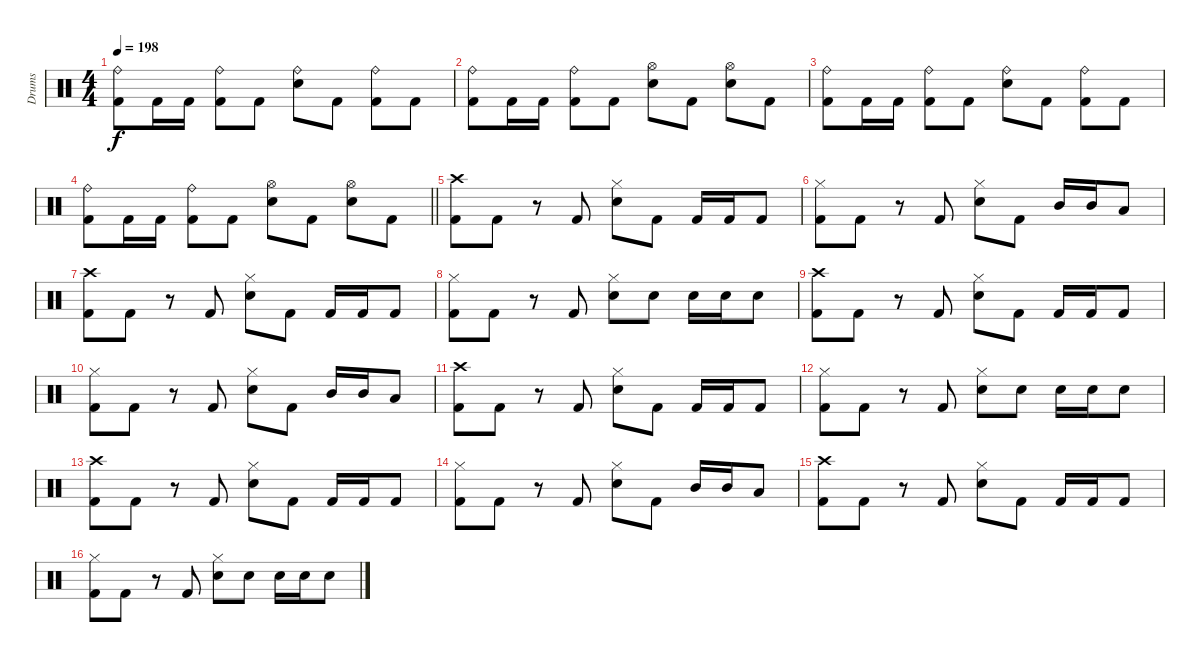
\track ("Drums" "Drums") {instrument percussion}
\staff {score}
\articulation defaults
\ts (4 4)
\tempo 198
\clef neutral
\ks c
("Ride (bell)" "Kick (hit) 2").8{dy f} "Kick (hit) 2".16 "Kick (hit) 2".16 ("Ride (bell)" "Kick (hit) 2").8 "Kick (hit) 2".8 ("Ride (bell)" "Snare (hit) 2").8 "Kick (hit) 2".8 ("Ride (bell)" "Kick (hit) 2").8 "Kick (hit) 2".8 |
("Ride (bell)" "Kick (hit) 2").8 "Kick (hit) 2".16 "Kick (hit) 2".16 ("Ride (bell)" "Kick (hit) 2").8 "Kick (hit) 2".8 ("Hi-Hat (open)" "Snare (hit) 2").8 "Kick (hit) 2".8 ("Hi-Hat (open)" "Snare (hit) 2").8 "Kick (hit) 2".8 |
("Ride (bell)" "Kick (hit) 2").8 "Kick (hit) 2".16 "Kick (hit) 2".16 ("Ride (bell)" "Kick (hit) 2").8 "Kick (hit) 2".8 ("Ride (bell)" "Snare (hit) 2").8 "Kick (hit) 2".8 ("Ride (bell)" "Kick (hit) 2").8 "Kick (hit) 2".8 |
\barLineRight lightlight
("Ride (bell)" "Kick (hit) 2").8 "Kick (hit) 2".16 "Kick (hit) 2".16 ("Ride (bell)" "Kick (hit) 2").8 "Kick (hit) 2".8 ("Hi-Hat (open)" "Snare (hit) 2").8 "Kick (hit) 2".8 ("Hi-Hat (open)" "Snare (hit) 2").8 "Kick (hit) 2".8 |
("Crash high (hit)" "Kick (hit) 2").8 "Kick (hit) 2".8 r.8 "Kick (hit) 2".8 ("Hi-Hat (closed)" "Snare (hit) 2").8 "Kick (hit) 2".8 "Kick (hit) 2".16 "Kick (hit) 2".16 "Kick (hit) 2".8 |
("Hi-Hat (closed)" "Kick (hit) 2").8 "Kick (hit) 2".8 r.8 "Kick (hit) 2".8 ("Hi-Hat (closed)" "Snare (hit) 2").8 "Kick (hit) 2".8 "Mid Tom (hit)".16 "Mid Tom (hit)".16 "Low Tom (hit)".8 |
("Crash high (hit)" "Kick (hit) 2").8 "Kick (hit) 2".8 r.8 "Kick (hit) 2".8 ("Hi-Hat (closed)" "Snare (hit) 2").8 "Kick (hit) 2".8 "Kick (hit) 2".16 "Kick (hit) 2".16 "Kick (hit) 2".8 |
("Hi-Hat (closed)" "Kick (hit) 2").8 "Kick (hit) 2".8 r.8 "Kick (hit) 2".8 ("Hi-Hat (closed)" "Snare (hit) 2").8 "Snare (hit) 2".8 "Snare (hit) 2".16 "Snare (hit) 2".16 "Snare (hit) 2".8 |
("Crash high (hit)" "Kick (hit) 2").8 "Kick (hit) 2".8 r.8 "Kick (hit) 2".8 ("Hi-Hat (closed)" "Snare (hit) 2").8 "Kick (hit) 2".8 "Kick (hit) 2".16 "Kick (hit) 2".16 "Kick (hit) 2".8 |
("Hi-Hat (closed)" "Kick (hit) 2").8 "Kick (hit) 2".8 r.8 "Kick (hit) 2".8 ("Hi-Hat (closed)" "Snare (hit) 2").8 "Kick (hit) 2".8 "Mid Tom (hit)".16 "Mid Tom (hit)".16 "Low Tom (hit)".8 |
("Crash high (hit)" "Kick (hit) 2").8 "Kick (hit) 2".8 r.8 "Kick (hit) 2".8 ("Hi-Hat (closed)" "Snare (hit) 2").8 "Kick (hit) 2".8 "Kick (hit) 2".16 "Kick (hit) 2".16 "Kick (hit) 2".8 |
("Hi-Hat (closed)" "Kick (hit) 2").8 "Kick (hit) 2".8 r.8 "Kick (hit) 2".8 ("Hi-Hat (closed)" "Snare (hit) 2").8 "Snare (hit) 2".8 "Snare (hit) 2".16 "Snare (hit) 2".16 "Snare (hit) 2".8 |
("Crash high (hit)" "Kick (hit) 2").8 "Kick (hit) 2".8 r.8 "Kick (hit) 2".8 ("Hi-Hat (closed)" "Snare (hit) 2").8 "Kick (hit) 2".8 "Kick (hit) 2".16 "Kick (hit) 2".16 "Kick (hit) 2".8 |
("Hi-Hat (closed)" "Kick (hit) 2").8 "Kick (hit) 2".8 r.8 "Kick (hit) 2".8 ("Hi-Hat (closed)" "Snare (hit) 2").8 "Kick (hit) 2".8 "Mid Tom (hit)".16 "Mid Tom (hit)".16 "Low Tom (hit)".8 |
("Crash high (hit)" "Kick (hit) 2").8 "Kick (hit) 2".8 r.8 "Kick (hit) 2".8 ("Hi-Hat (closed)" "Snare (hit) 2").8 "Kick (hit) 2".8 "Kick (hit) 2".16 "Kick (hit) 2".16 "Kick (hit) 2".8 |
("Hi-Hat (closed)" "Kick (hit) 2").8 "Kick (hit) 2".8 r.8 "Kick (hit) 2".8 ("Hi-Hat (closed)" "Snare (hit) 2").8 "Snare (hit) 2".8 "Snare (hit) 2".16 "Snare (hit) 2".16 "Snare (hit) 2".8
